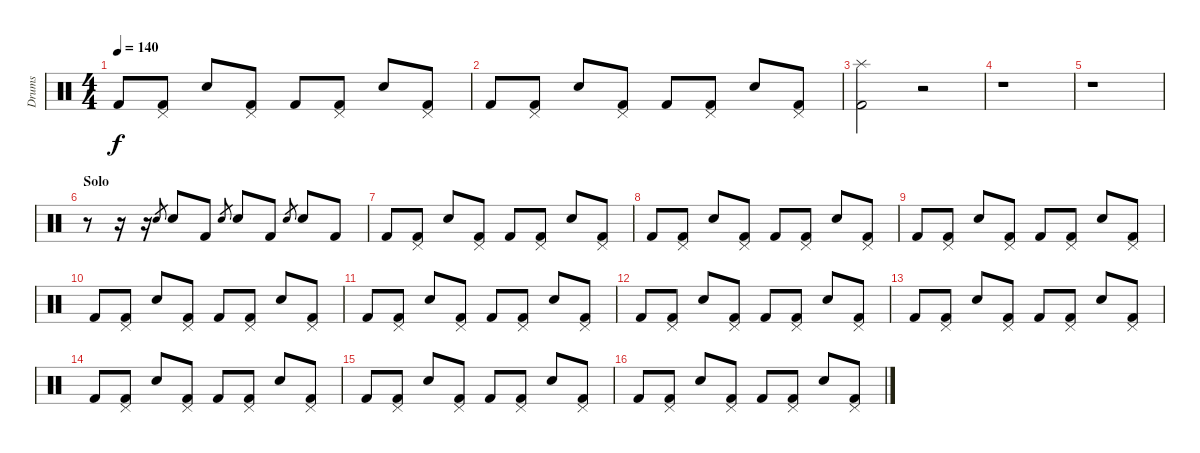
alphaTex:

\track ("Drums" "Drums") {instrument percussion}
\staff {score}
\articulation defaults
\ts (4 4)
\tempo 140
\clef neutral
\ks c "Kick (hit) 2".8{dy f}
("Pedal Hi-Hat (hit)" "Kick (hit) 2").8 "Electric Snare (hit)".8 ("Pedal Hi-Hat (hit)" "Kick (hit) 2").8 "Kick (hit) 2".8 ("Pedal Hi-Hat (hit)" "Kick (hit) 2").8 "Electric Snare (hit)".8 ("Pedal Hi-Hat (hit)" "Kick (hit) 2").8 |
"Kick (hit) 2".8 ("Pedal Hi-Hat (hit)" "Kick (hit) 2").8 "Electric Snare (hit)".8 ("Pedal Hi-Hat (hit)" "Kick (hit) 2").8 "Kick (hit) 2".8 ("Pedal Hi-Hat (hit)" "Kick (hit) 2").8 "Electric Snare (hit)".8 ("Pedal Hi-Hat (hit)" "Kick (hit) 2").8 |
("Splash (hit)" "Kick (hit) 2").2 r.2 |
r.1 |
r.1 |
\section ("" "Solo")
r.8 r.16 r.16 "Electric Snare (hit)".8{gr} "Electric Snare (hit)".8 "Kick (hit) 2".8 "Electric Snare (hit)".8{gr} "Electric Snare (hit)".8 "Kick (hit) 2".8 "Electric Snare (hit)".8{gr} "Electric Snare (hit)".8 "Kick (hit) 2".8 |
"Kick (hit) 2".8 ("Pedal Hi-Hat (hit)" "Kick (hit) 2").8 "Electric Snare (hit)".8 ("Pedal Hi-Hat (hit)" "Kick (hit) 2").8 "Kick (hit) 2".8 ("Pedal Hi-Hat (hit)" "Kick (hit) 2").8 "Electric Snare (hit)".8 ("Pedal Hi-Hat (hit)" "Kick (hit) 2").8 |
"Kick (hit) 2".8 ("Pedal Hi-Hat (hit)" "Kick (hit) 2").8 "Electric Snare (hit)".8 ("Pedal Hi-Hat (hit)" "Kick (hit) 2").8 "Kick (hit) 2".8 ("Pedal Hi-Hat (hit)" "Kick (hit) 2").8 "Electric Snare (hit)".8 ("Pedal Hi-Hat (hit)" "Kick (hit) 2").8 |
"Kick (hit) 2".8 ("Pedal Hi-Hat (hit)" "Kick (hit) 2").8 "Electric Snare (hit)".8 ("Pedal Hi-Hat (hit)" "Kick (hit) 2").8 "Kick (hit) 2".8 ("Pedal Hi-Hat (hit)" "Kick (hit) 2").8 "Electric Snare (hit)".8 ("Pedal Hi-Hat (hit)" "Kick (hit) 2").8 |
"Kick (hit) 2".8 ("Pedal Hi-Hat (hit)" "Kick (hit) 2").8 "Electric Snare (hit)".8 ("Pedal Hi-Hat (hit)" "Kick (hit) 2").8 "Kick (hit) 2".8 ("Pedal Hi-Hat (hit)" "Kick (hit) 2").8 "Electric Snare (hit)".8 ("Pedal Hi-Hat (hit)" "Kick (hit) 2").8 |
"Kick (hit) 2".8 ("Pedal Hi-Hat (hit)" "Kick (hit) 2").8 "Electric Snare (hit)".8 ("Pedal Hi-Hat (hit)" "Kick (hit) 2").8 "Kick (hit) 2".8 ("Pedal Hi-Hat (hit)" "Kick (hit) 2").8 "Electric Snare (hit)".8 ("Pedal Hi-Hat (hit)" "Kick (hit) 2").8 |
"Kick (hit) 2".8 ("Pedal Hi-Hat (hit)" "Kick (hit) 2").8 "Electric Snare (hit)".8 ("Pedal Hi-Hat (hit)" "Kick (hit) 2").8 "Kick (hit) 2".8 ("Pedal Hi-Hat (hit)" "Kick (hit) 2").8 "Electric Snare (hit)".8 ("Pedal Hi-Hat (hit)" "Kick (hit) 2").8 |
"Kick (hit) 2".8 ("Pedal Hi-Hat (hit)" "Kick (hit) 2").8 "Electric Snare (hit)".8 ("Pedal Hi-Hat (hit)" "Kick (hit) 2").8 "Kick (hit) 2".8 ("Pedal Hi-Hat (hit)" "Kick (hit) 2").8 "Electric Snare (hit)".8 ("Pedal Hi-Hat (hit)" "Kick (hit) 2").8 |
"Kick (hit) 2".8 ("Pedal Hi-Hat (hit)" "Kick (hit) 2").8 "Electric Snare (hit)".8 ("Pedal Hi-Hat (hit)" "Kick (hit) 2").8 "Kick (hit) 2".8 ("Pedal Hi-Hat (hit)" "Kick (hit) 2").8 "Electric Snare (hit)".8 ("Pedal Hi-Hat (hit)" "Kick (hit) 2").8 |
"Kick (hit) 2".8 ("Pedal Hi-Hat (hit)" "Kick (hit) 2").8 "Electric Snare (hit)".8 ("Pedal Hi-Hat (hit)" "Kick (hit) 2").8 "Kick (hit) 2".8 ("Pedal Hi-Hat (hit)" "Kick (hit) 2").8 "Electric Snare (hit)".8 ("Pedal Hi-Hat (hit)" "Kick (hit) 2").8 |
"Kick (hit) 2".8 ("Pedal Hi-Hat (hit)" "Kick (hit) 2").8 "Electric Snare (hit)".8 ("Pedal Hi-Hat (hit)" "Kick (hit) 2").8 "Kick (hit) 2".8 ("Pedal Hi-Hat (hit)" "Kick (hit) 2").8 "Electric Snare (hit)".8 ("Pedal Hi-Hat (hit)" "Kick (hit) 2").8
